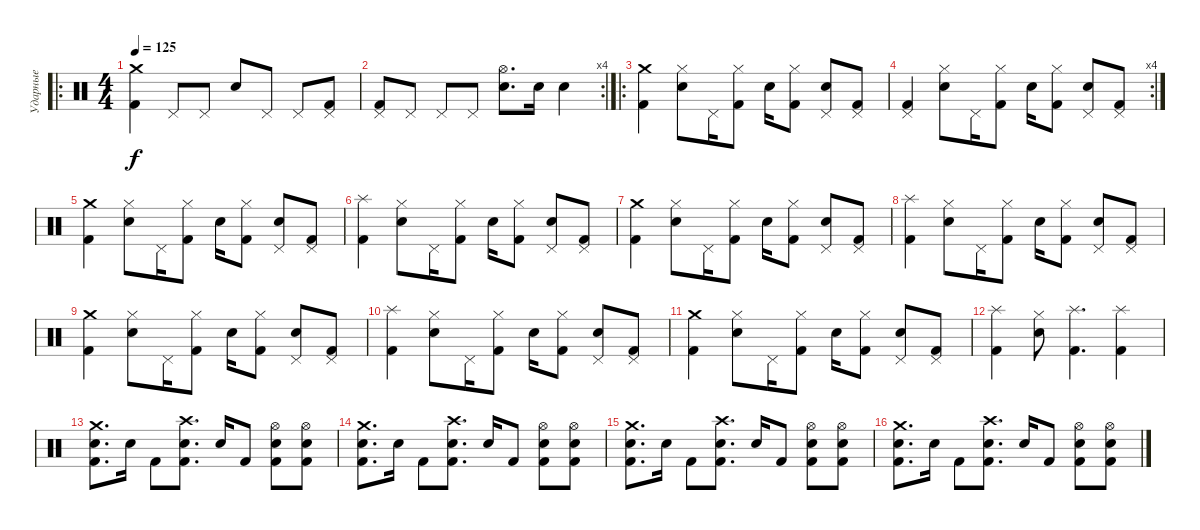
\track ("Ударные" "Ударные") {instrument percussion}
\staff {score}
\articulation defaults
\ro
\ts (4 4)
\tempo 125
\clef neutral
\ks c
("Crash medium (hit)" "Kick (hit) 2").4{dy f} "Pedal Hi-Hat (hit)".8 "Pedal Hi-Hat (hit)".8 "Snare (hit) 2".8 "Pedal Hi-Hat (hit)".8 "Pedal Hi-Hat (hit)".8 ("Pedal Hi-Hat (hit)" "Kick (hit) 2").8 |
\rc 4
("Pedal Hi-Hat (hit)" "Kick (hit) 2").8 "Pedal Hi-Hat (hit)".8 "Pedal Hi-Hat (hit)".8 "Pedal Hi-Hat (hit)".8 ("Hi-Hat (open)" "Snare (hit) 2").8{d} "Snare (hit) 2".16 "Snare (hit) 2".4 |
\ro
("Crash medium (hit)" "Kick (hit) 2").4 ("Hi-Hat (closed)" "Snare (hit) 2").8 "Pedal Hi-Hat (hit)".16 ("Hi-Hat (closed)" "Kick (hit) 2").8 "Snare (hit) 2".16 ("Hi-Hat (closed)" "Kick (hit) 2").8 ("Pedal Hi-Hat (hit)" "Snare (hit) 2").8 ("Pedal Hi-Hat (hit)" "Kick (hit) 2").8 |
\rc 4
("Pedal Hi-Hat (hit)" "Kick (hit) 2").4 ("Hi-Hat (closed)" "Snare (hit) 2").8 "Pedal Hi-Hat (hit)".16 ("Hi-Hat (closed)" "Kick (hit) 2").8 "Snare (hit) 2".16 ("Hi-Hat (closed)" "Kick (hit) 2").8 ("Pedal Hi-Hat (hit)" "Snare (hit) 2").8 ("Pedal Hi-Hat (hit)" "Kick (hit) 2").8 |
("Crash medium (hit)" "Kick (hit) 2").4 ("Hi-Hat (closed)" "Snare (hit) 2").8 "Pedal Hi-Hat (hit)".16 ("Hi-Hat (closed)" "Kick (hit) 2").8 "Snare (hit) 2".16 ("Hi-Hat (closed)" "Kick (hit) 2").8 ("Pedal Hi-Hat (hit)" "Snare (hit) 2").8 ("Pedal Hi-Hat (hit)" "Kick (hit) 2").8 |
("Splash (hit)" "Kick (hit) 2").4 ("Hi-Hat (closed)" "Snare (hit) 2").8 "Pedal Hi-Hat (hit)".16 ("Hi-Hat (closed)" "Kick (hit) 2").8 "Snare (hit) 2".16 ("Hi-Hat (closed)" "Kick (hit) 2").8 ("Pedal Hi-Hat (hit)" "Snare (hit) 2").8 ("Pedal Hi-Hat (hit)" "Kick (hit) 2").8 |
("Crash medium (hit)" "Kick (hit) 2").4 ("Hi-Hat (closed)" "Snare (hit) 2").8 "Pedal Hi-Hat (hit)".16 ("Hi-Hat (closed)" "Kick (hit) 2").8 "Snare (hit) 2".16 ("Hi-Hat (closed)" "Kick (hit) 2").8 ("Pedal Hi-Hat (hit)" "Snare (hit) 2").8 ("Pedal Hi-Hat (hit)" "Kick (hit) 2").8 |
("Splash (hit)" "Kick (hit) 2").4 ("Hi-Hat (closed)" "Snare (hit) 2").8 "Pedal Hi-Hat (hit)".16 ("Hi-Hat (closed)" "Kick (hit) 2").8 "Snare (hit) 2".16 ("Hi-Hat (closed)" "Kick (hit) 2").8 ("Pedal Hi-Hat (hit)" "Snare (hit) 2").8 ("Pedal Hi-Hat (hit)" "Kick (hit) 2").8 |
("Crash medium (hit)" "Kick (hit) 2").4 ("Hi-Hat (closed)" "Snare (hit) 2").8 "Pedal Hi-Hat (hit)".16 ("Hi-Hat (closed)" "Kick (hit) 2").8 "Snare (hit) 2".16 ("Hi-Hat (closed)" "Kick (hit) 2").8 ("Pedal Hi-Hat (hit)" "Snare (hit) 2").8 ("Pedal Hi-Hat (hit)" "Kick (hit) 2").8 |
("Splash (hit)" "Kick (hit) 2").4 ("Hi-Hat (closed)" "Snare (hit) 2").8 "Pedal Hi-Hat (hit)".16 ("Hi-Hat (closed)" "Kick (hit) 2").8 "Snare (hit) 2".16 ("Hi-Hat (closed)" "Kick (hit) 2").8 ("Pedal Hi-Hat (hit)" "Snare (hit) 2").8 ("Pedal Hi-Hat (hit)" "Kick (hit) 2").8 |
("Crash medium (hit)" "Kick (hit) 2").4 ("Hi-Hat (closed)" "Snare (hit) 2").8 "Pedal Hi-Hat (hit)".16 ("Hi-Hat (closed)" "Kick (hit) 2").8 "Snare (hit) 2".16 ("Hi-Hat (closed)" "Kick (hit) 2").8 ("Pedal Hi-Hat (hit)" "Snare (hit) 2").8 ("Pedal Hi-Hat (hit)" "Kick (hit) 2").8 |
("Splash (hit)" "Kick (hit) 2").4 ("Hi-Hat (closed)" "Snare (hit) 2").8 ("Splash (hit)" "Kick (hit) 2").4{d} ("Splash (hit)" "Kick (hit) 2").4 |
("Crash medium (hit)" "Snare (hit) 2" "Kick (hit) 2").8{d} "Snare (hit) 2".16 "Kick (hit) 2".8 ("Crash high (hit)" "Snare (hit) 2" "Kick (hit) 2").8{d} "Snare (hit) 2".16 "Kick (hit) 2".8 ("Hi-Hat (open)" "Snare (hit) 2" "Kick (hit) 2").8 ("Hi-Hat (open)" "Snare (hit) 2" "Kick (hit) 2").8 |
("Crash medium (hit)" "Snare (hit) 2" "Kick (hit) 2").8{d} "Snare (hit) 2".16 "Kick (hit) 2".8 ("Crash high (hit)" "Snare (hit) 2" "Kick (hit) 2").8{d} "Snare (hit) 2".16 "Kick (hit) 2".8 ("Hi-Hat (open)" "Snare (hit) 2" "Kick (hit) 2").8 ("Hi-Hat (open)" "Snare (hit) 2" "Kick (hit) 2").8 |
("Crash medium (hit)" "Snare (hit) 2" "Kick (hit) 2").8{d} "Snare (hit) 2".16 "Kick (hit) 2".8 ("Crash high (hit)" "Snare (hit) 2" "Kick (hit) 2").8{d} "Snare (hit) 2".16 "Kick (hit) 2".8 ("Hi-Hat (open)" "Snare (hit) 2" "Kick (hit) 2").8 ("Hi-Hat (open)" "Snare (hit) 2" "Kick (hit) 2").8 |
("Crash medium (hit)" "Snare (hit) 2" "Kick (hit) 2").8{d} "Snare (hit) 2".16 "Kick (hit) 2".8 ("Crash high (hit)" "Snare (hit) 2" "Kick (hit) 2").8{d} "Snare (hit) 2".16 "Kick (hit) 2".8 ("Hi-Hat (open)" "Snare (hit) 2" "Kick (hit) 2").8 ("Hi-Hat (open)" "Snare (hit) 2" "Kick (hit) 2").8
